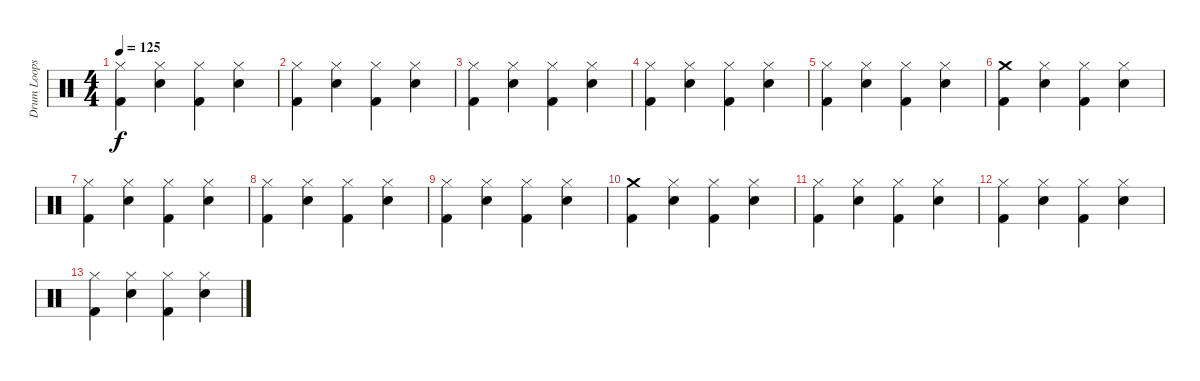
\track ("Drum Loops (Дурачок)" "Drum Loops") {instrument percussion}
\staff {score}
\articulation defaults
\ts (4 4)
\tempo 125
\clef neutral
\ks c
("Kick (hit) 2" "Hi-Hat (closed)").4{dy f} ("Snare (hit) 2" "Hi-Hat (closed)").4 ("Kick (hit) 2" "Hi-Hat (closed)").4 ("Snare (hit) 2" "Hi-Hat (closed)").4 |
("Kick (hit) 2" "Hi-Hat (closed)").4 ("Snare (hit) 2" "Hi-Hat (closed)").4 ("Kick (hit) 2" "Hi-Hat (closed)").4 ("Snare (hit) 2" "Hi-Hat (closed)").4 |
("Kick (hit) 2" "Hi-Hat (closed)").4 ("Snare (hit) 2" "Hi-Hat (closed)").4 ("Kick (hit) 2" "Hi-Hat (closed)").4 ("Snare (hit) 2" "Hi-Hat (closed)").4 |
("Kick (hit) 2" "Hi-Hat (closed)").4 ("Snare (hit) 2" "Hi-Hat (closed)").4 ("Kick (hit) 2" "Hi-Hat (closed)").4 ("Snare (hit) 2" "Hi-Hat (closed)").4 |
("Kick (hit) 2" "Hi-Hat (closed)").4 ("Snare (hit) 2" "Hi-Hat (closed)").4 ("Kick (hit) 2" "Hi-Hat (closed)").4 ("Snare (hit) 2" "Hi-Hat (closed)").4 |
("Kick (hit) 2" "Crash medium (hit)").4 ("Snare (hit) 2" "Hi-Hat (closed)").4 ("Kick (hit) 2" "Hi-Hat (closed)").4 ("Snare (hit) 2" "Hi-Hat (closed)").4 |
("Kick (hit) 2" "Hi-Hat (closed)").4 ("Snare (hit) 2" "Hi-Hat (closed)").4 ("Kick (hit) 2" "Hi-Hat (closed)").4 ("Snare (hit) 2" "Hi-Hat (closed)").4 |
("Kick (hit) 2" "Hi-Hat (closed)").4 ("Snare (hit) 2" "Hi-Hat (closed)").4 ("Kick (hit) 2" "Hi-Hat (closed)").4 ("Snare (hit) 2" "Hi-Hat (closed)").4 |
("Kick (hit) 2" "Hi-Hat (closed)").4 ("Snare (hit) 2" "Hi-Hat (closed)").4 ("Kick (hit) 2" "Hi-Hat (closed)").4 ("Snare (hit) 2" "Hi-Hat (closed)").4 |
("Kick (hit) 2" "Crash medium (hit)").4 ("Snare (hit) 2" "Hi-Hat (closed)").4 ("Kick (hit) 2" "Hi-Hat (closed)").4 ("Snare (hit) 2" "Hi-Hat (closed)").4 |
("Kick (hit) 2" "Hi-Hat (closed)").4 ("Snare (hit) 2" "Hi-Hat (closed)").4 ("Kick (hit) 2" "Hi-Hat (closed)").4 ("Snare (hit) 2" "Hi-Hat (closed)").4 |
("Kick (hit) 2" "Hi-Hat (closed)").4 ("Snare (hit) 2" "Hi-Hat (closed)").4 ("Kick (hit) 2" "Hi-Hat (closed)").4 ("Snare (hit) 2" "Hi-Hat (closed)").4 |
("Kick (hit) 2" "Hi-Hat (closed)").4 ("Snare (hit) 2" "Hi-Hat (closed)").4 ("Kick (hit) 2" "Hi-Hat (closed)").4 ("Snare (hit) 2" "Hi-Hat (closed)").4
